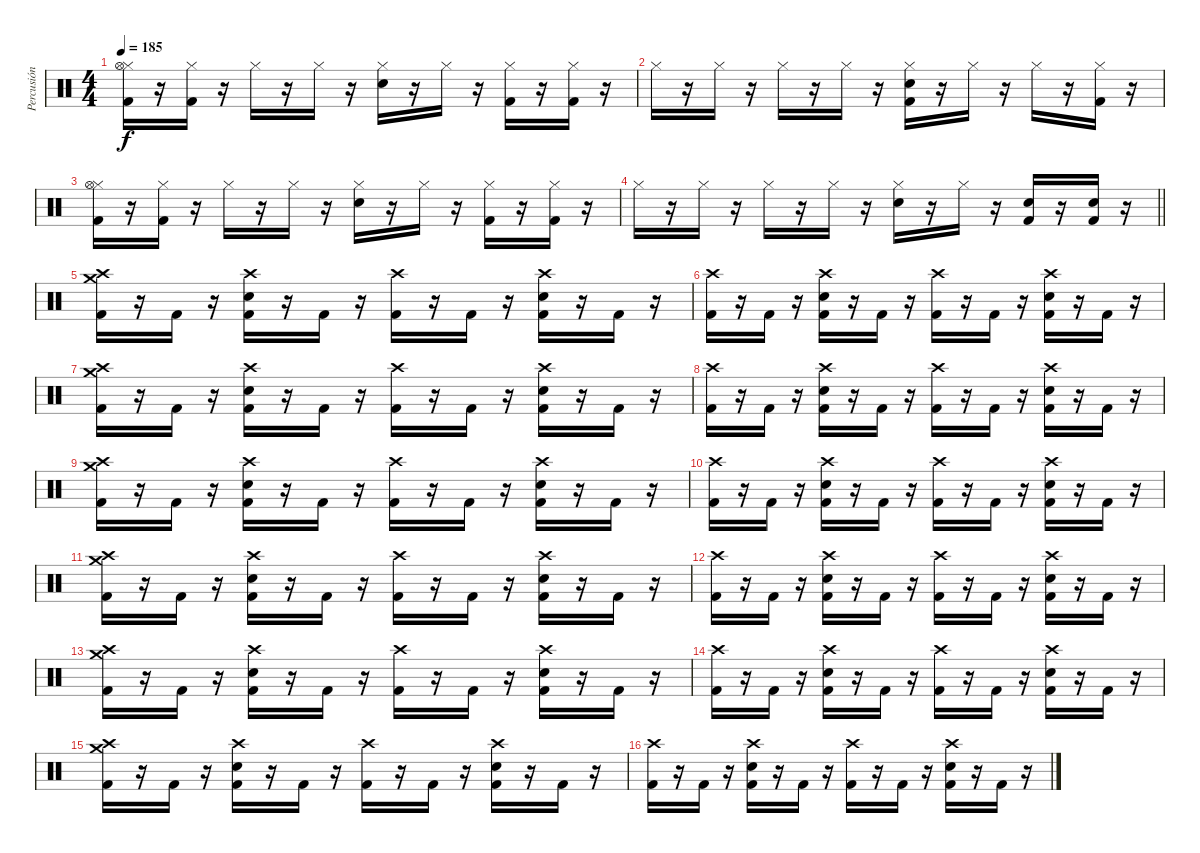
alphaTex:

\track ("Percusión" "Percusión") {instrument percussion}
\staff {score}
\articulation defaults
\ts (4 4)
\tempo 185
\clef neutral
\ks c
("Hi-Hat (closed)" "Hi-Hat (open)" "Kick (hit) 2").16{dy f} r.16 ("Hi-Hat (closed)" "Kick (hit) 2").16 r.16 "Hi-Hat (closed)".16 r.16 "Hi-Hat (closed)".16 r.16 ("Hi-Hat (closed)" "Electric Snare (hit)").16 r.16 "Hi-Hat (closed)".16 r.16 ("Hi-Hat (closed)" "Kick (hit) 2").16 r.16 ("Hi-Hat (closed)" "Kick (hit) 2").16 r.16 |
"Hi-Hat (closed)".16 r.16 "Hi-Hat (closed)".16 r.16 "Hi-Hat (closed)".16 r.16 "Hi-Hat (closed)".16 r.16 ("Hi-Hat (closed)" "Electric Snare (hit)" "Kick (hit) 2").16 r.16 "Hi-Hat (closed)".16 r.16 "Hi-Hat (closed)".16 r.16 ("Hi-Hat (closed)" "Kick (hit) 2").16 r.16 |
("Hi-Hat (closed)" "Hi-Hat (open)" "Kick (hit) 2").16 r.16 ("Hi-Hat (closed)" "Kick (hit) 2").16 r.16 "Hi-Hat (closed)".16 r.16 "Hi-Hat (closed)".16 r.16 ("Hi-Hat (closed)" "Electric Snare (hit)").16 r.16 "Hi-Hat (closed)".16 r.16 ("Hi-Hat (closed)" "Kick (hit) 2").16 r.16 ("Hi-Hat (closed)" "Kick (hit) 2").16 r.16 |
\barLineRight lightlight "Hi-Hat (closed)".16
r.16 "Hi-Hat (closed)".16 r.16 "Hi-Hat (closed)".16 r.16 "Hi-Hat (closed)".16 r.16 ("Hi-Hat (closed)" "Electric Snare (hit)").16 r.16 "Hi-Hat (closed)".16 r.16 ("Electric Snare (hit)" "Kick (hit) 2").16 r.16 ("Electric Snare (hit)" "Kick (hit) 2").16 r.16 |
("Crash high (hit)" "Crash medium (hit)" "Kick (hit) 2").16 r.16 "Kick (hit) 2".16 r.16 ("Crash high (hit)" "Electric Snare (hit)" "Kick (hit) 2").16 r.16 "Kick (hit) 2".16 r.16 ("Crash high (hit)" "Kick (hit) 2").16 r.16 "Kick (hit) 2".16 r.16 ("Crash high (hit)" "Electric Snare (hit)" "Kick (hit) 2").16 r.16 "Kick (hit) 2".16 r.16 |
("Crash high (hit)" "Kick (hit) 2").16 r.16 "Kick (hit) 2".16 r.16 ("Crash high (hit)" "Electric Snare (hit)" "Kick (hit) 2").16 r.16 "Kick (hit) 2".16 r.16 ("Crash high (hit)" "Kick (hit) 2").16 r.16 "Kick (hit) 2".16 r.16 ("Crash high (hit)" "Electric Snare (hit)" "Kick (hit) 2").16 r.16 "Kick (hit) 2".16 r.16 |
("Crash high (hit)" "Crash medium (hit)" "Kick (hit) 2").16 r.16 "Kick (hit) 2".16 r.16 ("Crash high (hit)" "Electric Snare (hit)" "Kick (hit) 2").16 r.16 "Kick (hit) 2".16 r.16 ("Crash high (hit)" "Kick (hit) 2").16 r.16 "Kick (hit) 2".16 r.16 ("Crash high (hit)" "Electric Snare (hit)" "Kick (hit) 2").16 r.16 "Kick (hit) 2".16 r.16 |
("Crash high (hit)" "Kick (hit) 2").16 r.16 "Kick (hit) 2".16 r.16 ("Crash high (hit)" "Electric Snare (hit)" "Kick (hit) 2").16 r.16 "Kick (hit) 2".16 r.16 ("Crash high (hit)" "Kick (hit) 2").16 r.16 "Kick (hit) 2".16 r.16 ("Crash high (hit)" "Electric Snare (hit)" "Kick (hit) 2").16 r.16 "Kick (hit) 2".16 r.16 |
("Crash high (hit)" "Crash medium (hit)" "Kick (hit) 2").16 r.16 "Kick (hit) 2".16 r.16 ("Crash high (hit)" "Electric Snare (hit)" "Kick (hit) 2").16 r.16 "Kick (hit) 2".16 r.16 ("Crash high (hit)" "Kick (hit) 2").16 r.16 "Kick (hit) 2".16 r.16 ("Crash high (hit)" "Electric Snare (hit)" "Kick (hit) 2").16 r.16 "Kick (hit) 2".16 r.16 |
("Crash high (hit)" "Kick (hit) 2").16 r.16 "Kick (hit) 2".16 r.16 ("Crash high (hit)" "Electric Snare (hit)" "Kick (hit) 2").16 r.16 "Kick (hit) 2".16 r.16 ("Crash high (hit)" "Kick (hit) 2").16 r.16 "Kick (hit) 2".16 r.16 ("Crash high (hit)" "Electric Snare (hit)" "Kick (hit) 2").16 r.16 "Kick (hit) 2".16 r.16 |
("Crash high (hit)" "Crash medium (hit)" "Kick (hit) 2").16 r.16 "Kick (hit) 2".16 r.16 ("Crash high (hit)" "Electric Snare (hit)" "Kick (hit) 2").16 r.16 "Kick (hit) 2".16 r.16 ("Crash high (hit)" "Kick (hit) 2").16 r.16 "Kick (hit) 2".16 r.16 ("Crash high (hit)" "Electric Snare (hit)" "Kick (hit) 2").16 r.16 "Kick (hit) 2".16 r.16 |
("Crash high (hit)" "Kick (hit) 2").16 r.16 "Kick (hit) 2".16 r.16 ("Crash high (hit)" "Electric Snare (hit)" "Kick (hit) 2").16 r.16 "Kick (hit) 2".16 r.16 ("Crash high (hit)" "Kick (hit) 2").16 r.16 "Kick (hit) 2".16 r.16 ("Crash high (hit)" "Electric Snare (hit)" "Kick (hit) 2").16 r.16 "Kick (hit) 2".16 r.16 |
("Crash high (hit)" "Crash medium (hit)" "Kick (hit) 2").16 r.16 "Kick (hit) 2".16 r.16 ("Crash high (hit)" "Electric Snare (hit)" "Kick (hit) 2").16 r.16 "Kick (hit) 2".16 r.16 ("Crash high (hit)" "Kick (hit) 2").16 r.16 "Kick (hit) 2".16 r.16 ("Crash high (hit)" "Electric Snare (hit)" "Kick (hit) 2").16 r.16 "Kick (hit) 2".16 r.16 |
("Crash high (hit)" "Kick (hit) 2").16 r.16 "Kick (hit) 2".16 r.16 ("Crash high (hit)" "Electric Snare (hit)" "Kick (hit) 2").16 r.16 "Kick (hit) 2".16 r.16 ("Crash high (hit)" "Kick (hit) 2").16 r.16 "Kick (hit) 2".16 r.16 ("Crash high (hit)" "Electric Snare (hit)" "Kick (hit) 2").16 r.16 "Kick (hit) 2".16 r.16 |
("Crash high (hit)" "Crash medium (hit)" "Kick (hit) 2").16 r.16 "Kick (hit) 2".16 r.16 ("Crash high (hit)" "Electric Snare (hit)" "Kick (hit) 2").16 r.16 "Kick (hit) 2".16 r.16 ("Crash high (hit)" "Kick (hit) 2").16 r.16 "Kick (hit) 2".16 r.16 ("Crash high (hit)" "Electric Snare (hit)" "Kick (hit) 2").16 r.16 "Kick (hit) 2".16 r.16 |
("Crash high (hit)" "Kick (hit) 2").16 r.16 "Kick (hit) 2".16 r.16 ("Crash high (hit)" "Electric Snare (hit)" "Kick (hit) 2").16 r.16 "Kick (hit) 2".16 r.16 ("Crash high (hit)" "Kick (hit) 2").16 r.16 "Kick (hit) 2".16 r.16 ("Crash high (hit)" "Electric Snare (hit)" "Kick (hit) 2").16 r.16 "Kick (hit) 2".16 r.16
